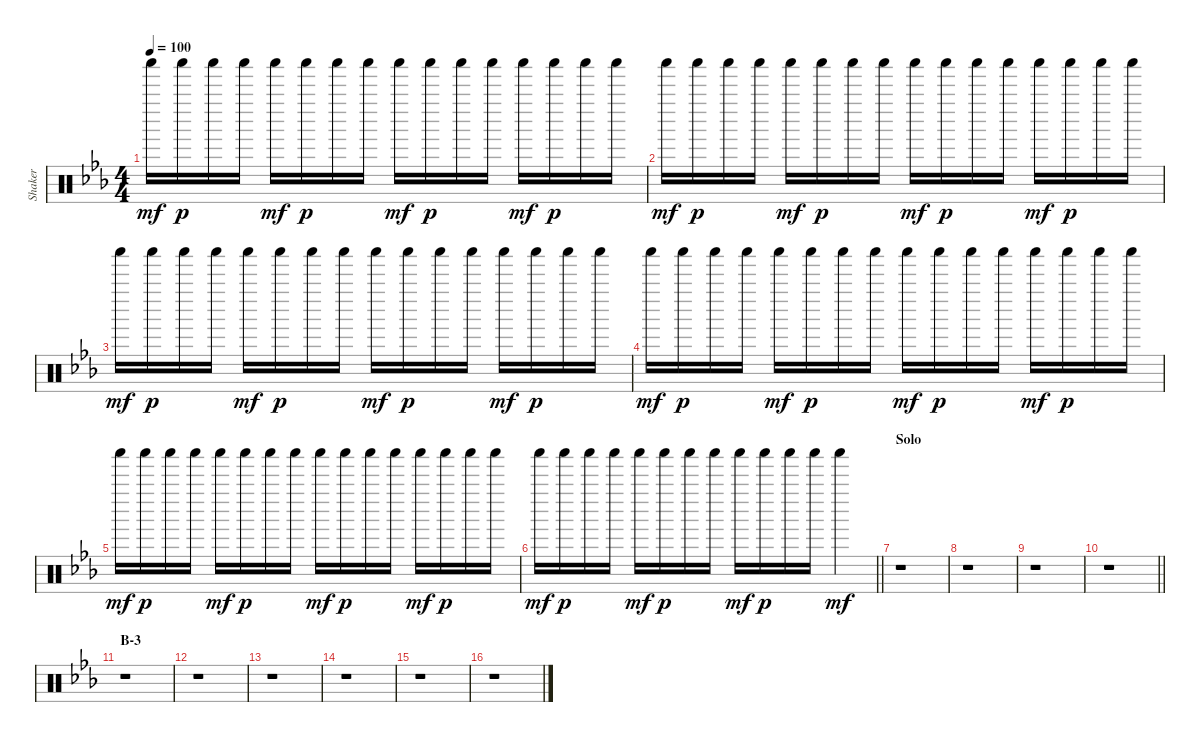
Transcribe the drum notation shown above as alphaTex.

\track ("Shaker" "Shaker") {instrument percussion}
\staff {score}
\articulation defaults
\ts (4 4)
\tempo 100
\clef neutral
\ks eb "Shaker (hit)".16{dy mf} "Shaker (hit)".16{dy p} "Shaker (hit)".16 "Shaker (hit)".16 "Shaker (hit)".16{dy mf} "Shaker (hit)".16{dy p} "Shaker (hit)".16 "Shaker (hit)".16 "Shaker (hit)".16{dy mf} "Shaker (hit)".16{dy p} "Shaker (hit)".16 "Shaker (hit)".16 "Shaker (hit)".16{dy mf} "Shaker (hit)".16{dy p} "Shaker (hit)".16 "Shaker (hit)".16
|
"Shaker (hit)".16{dy mf} "Shaker (hit)".16{dy p} "Shaker (hit)".16 "Shaker (hit)".16 "Shaker (hit)".16{dy mf} "Shaker (hit)".16{dy p} "Shaker (hit)".16 "Shaker (hit)".16 "Shaker (hit)".16{dy mf} "Shaker (hit)".16{dy p} "Shaker (hit)".16 "Shaker (hit)".16 "Shaker (hit)".16{dy mf} "Shaker (hit)".16{dy p} "Shaker (hit)".16 "Shaker (hit)".16 |
"Shaker (hit)".16{dy mf} "Shaker (hit)".16{dy p} "Shaker (hit)".16 "Shaker (hit)".16 "Shaker (hit)".16{dy mf} "Shaker (hit)".16{dy p} "Shaker (hit)".16 "Shaker (hit)".16 "Shaker (hit)".16{dy mf} "Shaker (hit)".16{dy p} "Shaker (hit)".16 "Shaker (hit)".16 "Shaker (hit)".16{dy mf} "Shaker (hit)".16{dy p} "Shaker (hit)".16 "Shaker (hit)".16 |
"Shaker (hit)".16{dy mf} "Shaker (hit)".16{dy p} "Shaker (hit)".16 "Shaker (hit)".16 "Shaker (hit)".16{dy mf} "Shaker (hit)".16{dy p} "Shaker (hit)".16 "Shaker (hit)".16 "Shaker (hit)".16{dy mf} "Shaker (hit)".16{dy p} "Shaker (hit)".16 "Shaker (hit)".16 "Shaker (hit)".16{dy mf} "Shaker (hit)".16{dy p} "Shaker (hit)".16 "Shaker (hit)".16 |
"Shaker (hit)".16{dy mf} "Shaker (hit)".16{dy p} "Shaker (hit)".16 "Shaker (hit)".16 "Shaker (hit)".16{dy mf} "Shaker (hit)".16{dy p} "Shaker (hit)".16 "Shaker (hit)".16 "Shaker (hit)".16{dy mf} "Shaker (hit)".16{dy p} "Shaker (hit)".16 "Shaker (hit)".16 "Shaker (hit)".16{dy mf} "Shaker (hit)".16{dy p} "Shaker (hit)".16 "Shaker (hit)".16 |
\barLineRight lightlight "Shaker (hit)".16{dy mf} "Shaker (hit)".16{dy p} "Shaker (hit)".16 "Shaker (hit)".16 "Shaker (hit)".16{dy mf} "Shaker (hit)".16{dy p} "Shaker (hit)".16 "Shaker (hit)".16 "Shaker (hit)".16{dy mf} "Shaker (hit)".16{dy p} "Shaker (hit)".16 "Shaker (hit)".16 "Shaker (hit)".4{dy mf}
|
\section ("" "Solo")
r.1 |
r.1 |
r.1 |
\barLineRight lightlight
r.1 |
\section ("" "B-3")
r.1 |
r.1 |
r.1 |
r.1 |
r.1 |
r.1
